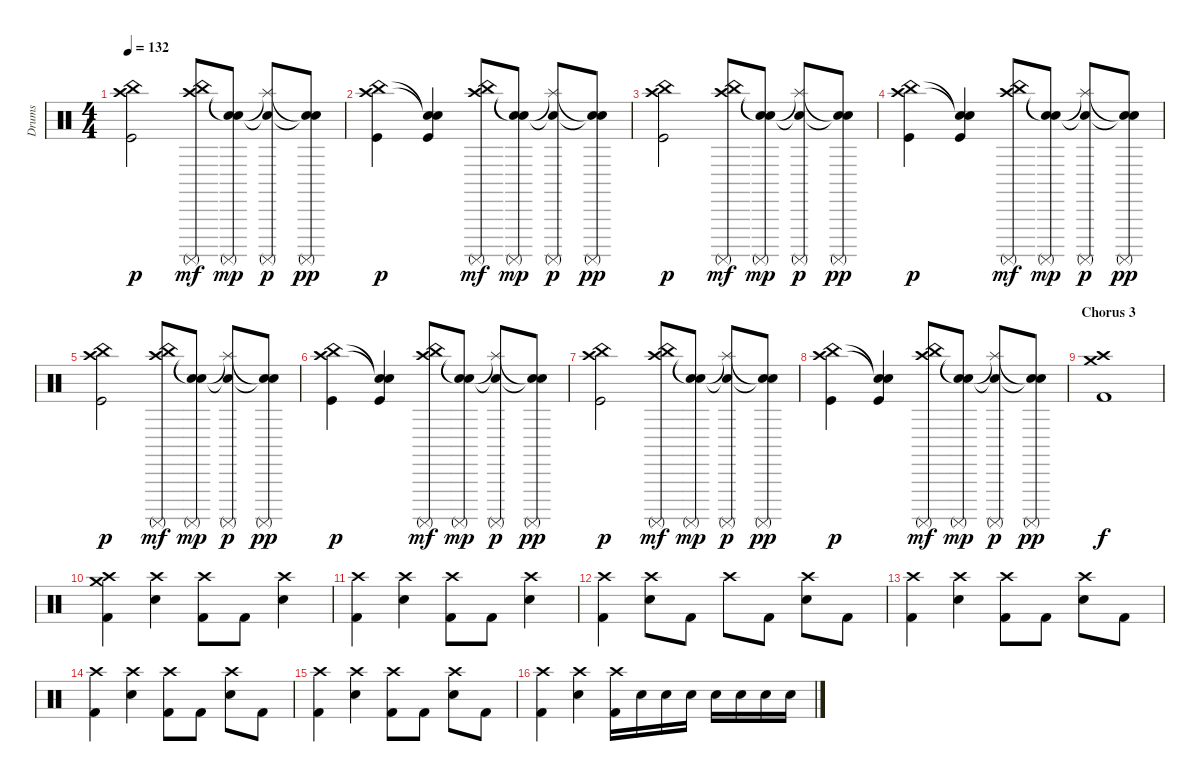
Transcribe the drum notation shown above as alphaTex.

\track ("Drums" "Drums") {instrument percussion}
\staff {score}
\articulation defaults
\ts (4 4)
\tempo 132
\clef neutral
\ks c
("China (hit)" "Crash high (hit)" "Kick (hit)").2{dy p} ("China (hit)" "Crash high (hit)" "Surdo (mute)").8{dy mf} ("Snare (hit)"{t} "Snare (hit)"{t} "Surdo (mute)").8{dy mp} ("Snare (hit)"{t} "Splash (hit)"{t} "Surdo (mute)").8{dy p} ("Snare (hit)"{t} "Snare (hit)"{t} "Surdo (mute)").8{dy pp} |
("China (hit)" "Crash high (hit)" "Kick (hit)").4{dy p} ("Snare (hit)"{t} "Snare (hit)"{t} "Kick (hit)").4 ("China (hit)" "Crash high (hit)" "Surdo (mute)").8{dy mf} ("Snare (hit)"{t} "Snare (hit)"{t} "Surdo (mute)").8{dy mp} ("Snare (hit)"{t} "Splash (hit)"{t} "Surdo (mute)").8{dy p} ("Snare (hit)"{t} "Snare (hit)"{t} "Surdo (mute)").8{dy pp} |
("China (hit)" "Crash high (hit)" "Kick (hit)").2{dy p} ("China (hit)" "Crash high (hit)" "Surdo (mute)").8{dy mf} ("Snare (hit)"{t} "Snare (hit)"{t} "Surdo (mute)").8{dy mp} ("Snare (hit)"{t} "Splash (hit)"{t} "Surdo (mute)").8{dy p} ("Snare (hit)"{t} "Snare (hit)"{t} "Surdo (mute)").8{dy pp} |
("China (hit)" "Crash high (hit)" "Kick (hit)").4{dy p} ("Snare (hit)"{t} "Snare (hit)"{t} "Kick (hit)").4 ("China (hit)" "Crash high (hit)" "Surdo (mute)").8{dy mf} ("Snare (hit)"{t} "Snare (hit)"{t} "Surdo (mute)").8{dy mp} ("Snare (hit)"{t} "Splash (hit)"{t} "Surdo (mute)").8{dy p} ("Snare (hit)"{t} "Snare (hit)"{t} "Surdo (mute)").8{dy pp} |
("China (hit)" "Crash high (hit)" "Kick (hit)").2{dy p} ("China (hit)" "Crash high (hit)" "Surdo (mute)").8{dy mf} ("Snare (hit)"{t} "Snare (hit)"{t} "Surdo (mute)").8{dy mp} ("Snare (hit)"{t} "Splash (hit)"{t} "Surdo (mute)").8{dy p} ("Snare (hit)"{t} "Snare (hit)"{t} "Surdo (mute)").8{dy pp} |
("China (hit)" "Crash high (hit)" "Kick (hit)").4{dy p} ("Snare (hit)"{t} "Snare (hit)"{t} "Kick (hit)").4 ("China (hit)" "Crash high (hit)" "Surdo (mute)").8{dy mf} ("Snare (hit)"{t} "Snare (hit)"{t} "Surdo (mute)").8{dy mp} ("Snare (hit)"{t} "Splash (hit)"{t} "Surdo (mute)").8{dy p} ("Snare (hit)"{t} "Snare (hit)"{t} "Surdo (mute)").8{dy pp} |
("China (hit)" "Crash high (hit)" "Kick (hit)").2{dy p} ("China (hit)" "Crash high (hit)" "Surdo (mute)").8{dy mf} ("Snare (hit)"{t} "Snare (hit)"{t} "Surdo (mute)").8{dy mp} ("Snare (hit)"{t} "Splash (hit)"{t} "Surdo (mute)").8{dy p} ("Snare (hit)"{t} "Snare (hit)"{t} "Surdo (mute)").8{dy pp} |
("China (hit)" "Crash high (hit)" "Kick (hit)").4{dy p} ("Snare (hit)"{t} "Snare (hit)"{t} "Kick (hit)").4 ("China (hit)" "Crash high (hit)" "Surdo (mute)").8{dy mf} ("Snare (hit)"{t} "Snare (hit)"{t} "Surdo (mute)").8{dy mp} ("Snare (hit)"{t} "Splash (hit)"{t} "Surdo (mute)").8{dy p} ("Snare (hit)"{t} "Snare (hit)"{t} "Surdo (mute)").8{dy pp} |
\section ("" "Chorus 3")
("Crash high (hit)" "Crash medium (hit)" "Kick (hit) 2").1{dy f} |
("Crash high (hit)" "Crash medium (hit)" "Kick (hit) 2").4 ("Crash high (hit)" "Electric Snare (hit)").4 ("Crash high (hit)" "Kick (hit) 2").8 "Kick (hit) 2".8 ("Crash high (hit)" "Electric Snare (hit)").4 |
("Crash high (hit)" "Kick (hit) 2").4 ("Crash high (hit)" "Electric Snare (hit)").4 ("Crash high (hit)" "Kick (hit) 2").8 "Kick (hit) 2".8 ("Crash high (hit)" "Electric Snare (hit)").4 |
("Crash high (hit)" "Kick (hit) 2").4 ("Crash high (hit)" "Electric Snare (hit)").8 "Kick (hit) 2".8 "Crash high (hit)".8 "Kick (hit) 2".8 ("Crash high (hit)" "Electric Snare (hit)").8 "Kick (hit) 2".8 |
("Crash high (hit)" "Kick (hit) 2").4 ("Crash high (hit)" "Electric Snare (hit)").4 ("Crash high (hit)" "Kick (hit) 2").8 "Kick (hit) 2".8 ("Crash high (hit)" "Electric Snare (hit)").8 "Kick (hit) 2".8 |
("Crash high (hit)" "Kick (hit) 2").4 ("Crash high (hit)" "Electric Snare (hit)").4 ("Crash high (hit)" "Kick (hit) 2").8 "Kick (hit) 2".8 ("Crash high (hit)" "Electric Snare (hit)").8 "Kick (hit) 2".8 |
("Crash high (hit)" "Kick (hit) 2").4 ("Crash high (hit)" "Electric Snare (hit)").4 ("Crash high (hit)" "Kick (hit) 2").8 "Kick (hit) 2".8 ("Crash high (hit)" "Electric Snare (hit)").8 "Kick (hit) 2".8 |
("Crash high (hit)" "Kick (hit) 2").4 ("Crash high (hit)" "Electric Snare (hit)").4 ("Crash high (hit)" "Kick (hit) 2").16 "Electric Snare (hit)".16 "Electric Snare (hit)".16 "Electric Snare (hit)".16 "Electric Snare (hit)".16 "Electric Snare (hit)".16 "Electric Snare (hit)".16 "Electric Snare (hit)".16
